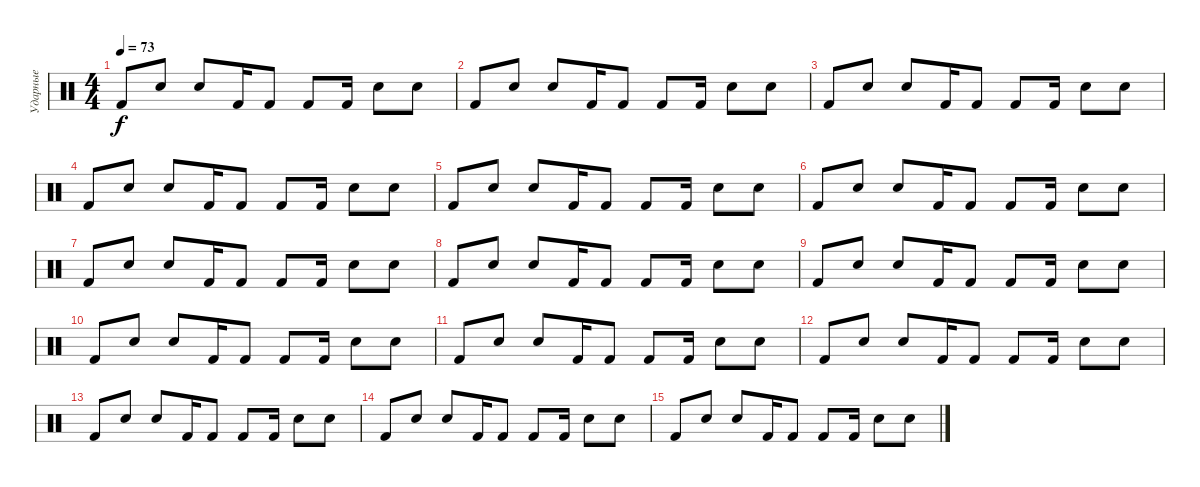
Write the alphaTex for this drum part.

\track ("Ударные" "Ударные") {instrument percussion}
\staff {score}
\articulation defaults
\ts (4 4)
\tempo 73
\clef neutral
\ks c "Kick (hit) 2".8{dy f} "Snare (hit)".8 "Snare (hit) 2".8 "Kick (hit) 2".16 "Kick (hit) 2".8 "Kick (hit) 2".8 "Kick (hit) 2".16 "Snare (hit) 2".8 "Snare (hit)".8
|
"Kick (hit) 2".8 "Snare (hit)".8 "Snare (hit) 2".8 "Kick (hit) 2".16 "Kick (hit) 2".8 "Kick (hit) 2".8 "Kick (hit) 2".16 "Snare (hit) 2".8 "Snare (hit)".8 |
"Kick (hit) 2".8 "Snare (hit)".8 "Snare (hit) 2".8 "Kick (hit) 2".16 "Kick (hit) 2".8 "Kick (hit) 2".8 "Kick (hit) 2".16 "Snare (hit) 2".8 "Snare (hit)".8 |
"Kick (hit) 2".8 "Snare (hit)".8 "Snare (hit) 2".8 "Kick (hit) 2".16 "Kick (hit) 2".8 "Kick (hit) 2".8 "Kick (hit) 2".16 "Snare (hit) 2".8 "Snare (hit)".8 |
"Kick (hit) 2".8 "Snare (hit)".8 "Snare (hit) 2".8 "Kick (hit) 2".16 "Kick (hit) 2".8 "Kick (hit) 2".8 "Kick (hit) 2".16 "Snare (hit) 2".8 "Snare (hit)".8 |
"Kick (hit) 2".8 "Snare (hit)".8 "Snare (hit) 2".8 "Kick (hit) 2".16 "Kick (hit) 2".8 "Kick (hit) 2".8 "Kick (hit) 2".16 "Snare (hit) 2".8 "Snare (hit)".8 |
"Kick (hit) 2".8 "Snare (hit)".8 "Snare (hit) 2".8 "Kick (hit) 2".16 "Kick (hit) 2".8 "Kick (hit) 2".8 "Kick (hit) 2".16 "Snare (hit) 2".8 "Snare (hit)".8 |
"Kick (hit) 2".8 "Snare (hit)".8 "Snare (hit) 2".8 "Kick (hit) 2".16 "Kick (hit) 2".8 "Kick (hit) 2".8 "Kick (hit) 2".16 "Snare (hit) 2".8 "Snare (hit)".8 |
"Kick (hit) 2".8 "Snare (hit)".8 "Snare (hit) 2".8 "Kick (hit) 2".16 "Kick (hit) 2".8 "Kick (hit) 2".8 "Kick (hit) 2".16 "Snare (hit) 2".8 "Snare (hit)".8 |
"Kick (hit) 2".8 "Snare (hit)".8 "Snare (hit) 2".8 "Kick (hit) 2".16 "Kick (hit) 2".8 "Kick (hit) 2".8 "Kick (hit) 2".16 "Snare (hit) 2".8 "Snare (hit)".8 |
"Kick (hit) 2".8 "Snare (hit)".8 "Snare (hit) 2".8 "Kick (hit) 2".16 "Kick (hit) 2".8 "Kick (hit) 2".8 "Kick (hit) 2".16 "Snare (hit) 2".8 "Snare (hit)".8 |
"Kick (hit) 2".8 "Snare (hit)".8 "Snare (hit) 2".8 "Kick (hit) 2".16 "Kick (hit) 2".8 "Kick (hit) 2".8 "Kick (hit) 2".16 "Snare (hit) 2".8 "Snare (hit)".8 |
"Kick (hit) 2".8 "Snare (hit)".8 "Snare (hit) 2".8 "Kick (hit) 2".16 "Kick (hit) 2".8 "Kick (hit) 2".8 "Kick (hit) 2".16 "Snare (hit) 2".8 "Snare (hit)".8 |
"Kick (hit) 2".8 "Snare (hit)".8 "Snare (hit) 2".8 "Kick (hit) 2".16 "Kick (hit) 2".8 "Kick (hit) 2".8 "Kick (hit) 2".16 "Snare (hit) 2".8 "Snare (hit)".8 |
"Kick (hit) 2".8 "Snare (hit)".8 "Snare (hit) 2".8 "Kick (hit) 2".16 "Kick (hit) 2".8 "Kick (hit) 2".8 "Kick (hit) 2".16 "Snare (hit) 2".8 "Snare (hit)".8
